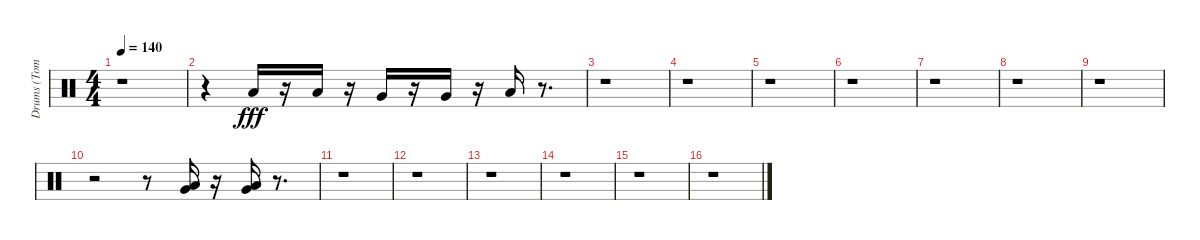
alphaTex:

\track ("Drums (Toms)" "Drums (Tom") {instrument percussion}
\staff {score}
\articulation defaults
\ts (4 4)
\tempo 140
\clef neutral
\ks c
r.1{dy fff} |
r.4 "Low Tom (hit)".16 r.16 "Low Tom (hit)".16 r.16 "Very Low Tom (hit)".16 r.16 "Very Low Tom (hit)".16 r.16 "Low Floor Tom (hit)".16 r.8{d} |
r.1 |
r.1 |
r.1 |
r.1 |
r.1 |
r.1 |
r.1 |
r.2 r.8 ("Very Low Tom (hit)" "Low Floor Tom (hit)").16 r.16 ("Very Low Tom (hit)" "Low Floor Tom (hit)").16 r.8{d} |
r.1 |
r.1 |
r.1 |
r.1 |
r.1 |
r.1
